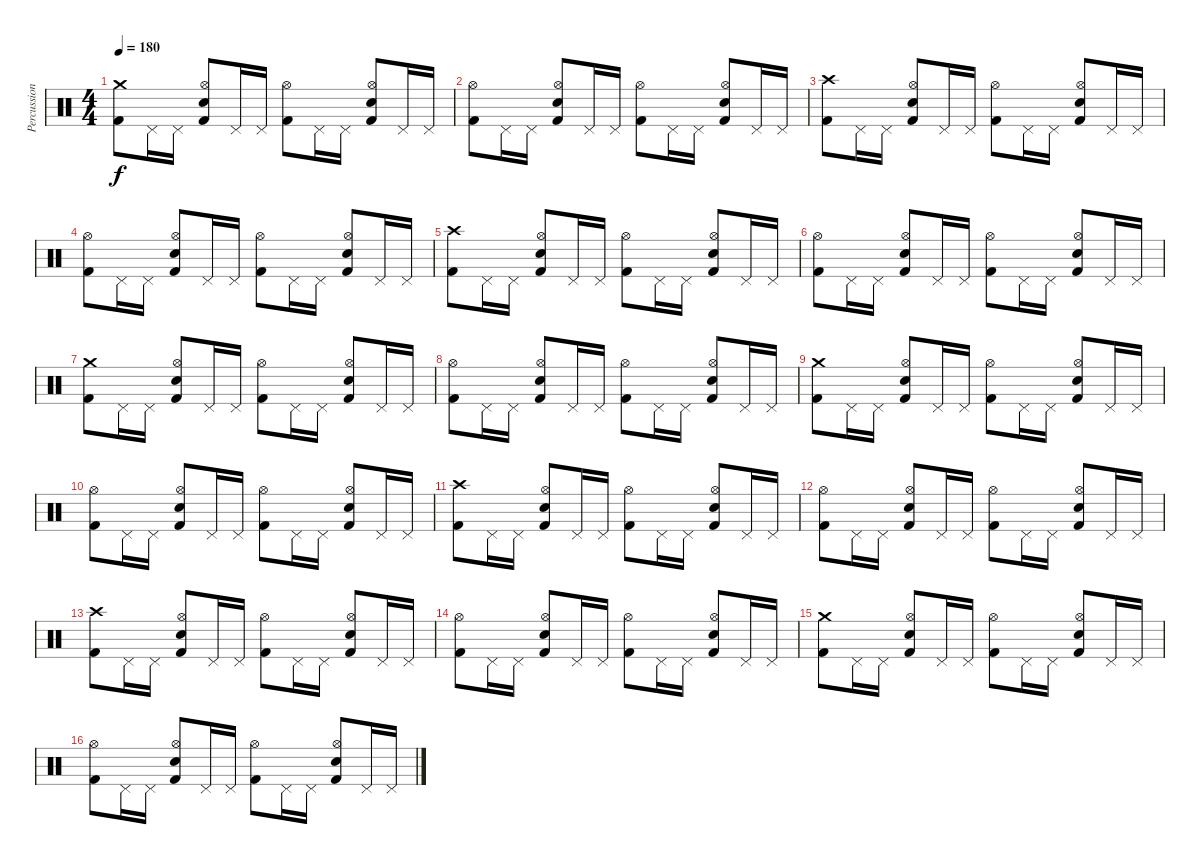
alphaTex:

\track ("Percussion" "Percussion") {instrument percussion}
\staff {score}
\articulation defaults
\ts (4 4)
\tempo 180
\clef neutral
\ks c
("Crash medium (hit)" "Kick (hit) 2").8{dy f} "Pedal Hi-Hat (hit)".16 "Pedal Hi-Hat (hit)".16 ("Hi-Hat (open)" "Electric Snare (hit)" "Kick (hit) 2").8 "Pedal Hi-Hat (hit)".16 "Pedal Hi-Hat (hit)".16 ("Hi-Hat (open)" "Kick (hit) 2").8 "Pedal Hi-Hat (hit)".16 "Pedal Hi-Hat (hit)".16 ("Hi-Hat (open)" "Electric Snare (hit)" "Kick (hit) 2").8 "Pedal Hi-Hat (hit)".16 "Pedal Hi-Hat (hit)".16 |
("Hi-Hat (open)" "Kick (hit) 2").8 "Pedal Hi-Hat (hit)".16 "Pedal Hi-Hat (hit)".16 ("Hi-Hat (open)" "Electric Snare (hit)" "Kick (hit) 2").8 "Pedal Hi-Hat (hit)".16 "Pedal Hi-Hat (hit)".16 ("Hi-Hat (open)" "Kick (hit) 2").8 "Pedal Hi-Hat (hit)".16 "Pedal Hi-Hat (hit)".16 ("Hi-Hat (open)" "Electric Snare (hit)" "Kick (hit) 2").8 "Pedal Hi-Hat (hit)".16 "Pedal Hi-Hat (hit)".16 |
("Crash high (hit)" "Kick (hit) 2").8 "Pedal Hi-Hat (hit)".16 "Pedal Hi-Hat (hit)".16 ("Hi-Hat (open)" "Electric Snare (hit)" "Kick (hit) 2").8 "Pedal Hi-Hat (hit)".16 "Pedal Hi-Hat (hit)".16 ("Hi-Hat (open)" "Kick (hit) 2").8 "Pedal Hi-Hat (hit)".16 "Pedal Hi-Hat (hit)".16 ("Hi-Hat (open)" "Electric Snare (hit)" "Kick (hit) 2").8 "Pedal Hi-Hat (hit)".16 "Pedal Hi-Hat (hit)".16 |
("Hi-Hat (open)" "Kick (hit) 2").8 "Pedal Hi-Hat (hit)".16 "Pedal Hi-Hat (hit)".16 ("Hi-Hat (open)" "Electric Snare (hit)" "Kick (hit) 2").8 "Pedal Hi-Hat (hit)".16 "Pedal Hi-Hat (hit)".16 ("Hi-Hat (open)" "Kick (hit) 2").8 "Pedal Hi-Hat (hit)".16 "Pedal Hi-Hat (hit)".16 ("Hi-Hat (open)" "Electric Snare (hit)" "Kick (hit) 2").8 "Pedal Hi-Hat (hit)".16 "Pedal Hi-Hat (hit)".16 |
("Crash high (hit)" "Kick (hit) 2").8 "Pedal Hi-Hat (hit)".16 "Pedal Hi-Hat (hit)".16 ("Hi-Hat (open)" "Electric Snare (hit)" "Kick (hit) 2").8 "Pedal Hi-Hat (hit)".16 "Pedal Hi-Hat (hit)".16 ("Hi-Hat (open)" "Kick (hit) 2").8 "Pedal Hi-Hat (hit)".16 "Pedal Hi-Hat (hit)".16 ("Hi-Hat (open)" "Electric Snare (hit)" "Kick (hit) 2").8 "Pedal Hi-Hat (hit)".16 "Pedal Hi-Hat (hit)".16 |
("Hi-Hat (open)" "Kick (hit) 2").8 "Pedal Hi-Hat (hit)".16 "Pedal Hi-Hat (hit)".16 ("Hi-Hat (open)" "Electric Snare (hit)" "Kick (hit) 2").8 "Pedal Hi-Hat (hit)".16 "Pedal Hi-Hat (hit)".16 ("Hi-Hat (open)" "Kick (hit) 2").8 "Pedal Hi-Hat (hit)".16 "Pedal Hi-Hat (hit)".16 ("Hi-Hat (open)" "Electric Snare (hit)" "Kick (hit) 2").8 "Pedal Hi-Hat (hit)".16 "Pedal Hi-Hat (hit)".16 |
("Crash medium (hit)" "Kick (hit) 2").8 "Pedal Hi-Hat (hit)".16 "Pedal Hi-Hat (hit)".16 ("Hi-Hat (open)" "Electric Snare (hit)" "Kick (hit) 2").8 "Pedal Hi-Hat (hit)".16 "Pedal Hi-Hat (hit)".16 ("Hi-Hat (open)" "Kick (hit) 2").8 "Pedal Hi-Hat (hit)".16 "Pedal Hi-Hat (hit)".16 ("Hi-Hat (open)" "Electric Snare (hit)" "Kick (hit) 2").8 "Pedal Hi-Hat (hit)".16 "Pedal Hi-Hat (hit)".16 |
("Hi-Hat (open)" "Kick (hit) 2").8 "Pedal Hi-Hat (hit)".16 "Pedal Hi-Hat (hit)".16 ("Hi-Hat (open)" "Electric Snare (hit)" "Kick (hit) 2").8 "Pedal Hi-Hat (hit)".16 "Pedal Hi-Hat (hit)".16 ("Hi-Hat (open)" "Kick (hit) 2").8 "Pedal Hi-Hat (hit)".16 "Pedal Hi-Hat (hit)".16 ("Hi-Hat (open)" "Electric Snare (hit)" "Kick (hit) 2").8 "Pedal Hi-Hat (hit)".16 "Pedal Hi-Hat (hit)".16 |
("Crash medium (hit)" "Kick (hit) 2").8 "Pedal Hi-Hat (hit)".16 "Pedal Hi-Hat (hit)".16 ("Hi-Hat (open)" "Electric Snare (hit)" "Kick (hit) 2").8 "Pedal Hi-Hat (hit)".16 "Pedal Hi-Hat (hit)".16 ("Hi-Hat (open)" "Kick (hit) 2").8 "Pedal Hi-Hat (hit)".16 "Pedal Hi-Hat (hit)".16 ("Hi-Hat (open)" "Electric Snare (hit)" "Kick (hit) 2").8 "Pedal Hi-Hat (hit)".16 "Pedal Hi-Hat (hit)".16 |
("Hi-Hat (open)" "Kick (hit) 2").8 "Pedal Hi-Hat (hit)".16 "Pedal Hi-Hat (hit)".16 ("Hi-Hat (open)" "Electric Snare (hit)" "Kick (hit) 2").8 "Pedal Hi-Hat (hit)".16 "Pedal Hi-Hat (hit)".16 ("Hi-Hat (open)" "Kick (hit) 2").8 "Pedal Hi-Hat (hit)".16 "Pedal Hi-Hat (hit)".16 ("Hi-Hat (open)" "Electric Snare (hit)" "Kick (hit) 2").8 "Pedal Hi-Hat (hit)".16 "Pedal Hi-Hat (hit)".16 |
("Crash high (hit)" "Kick (hit) 2").8 "Pedal Hi-Hat (hit)".16 "Pedal Hi-Hat (hit)".16 ("Hi-Hat (open)" "Electric Snare (hit)" "Kick (hit) 2").8 "Pedal Hi-Hat (hit)".16 "Pedal Hi-Hat (hit)".16 ("Hi-Hat (open)" "Kick (hit) 2").8 "Pedal Hi-Hat (hit)".16 "Pedal Hi-Hat (hit)".16 ("Hi-Hat (open)" "Electric Snare (hit)" "Kick (hit) 2").8 "Pedal Hi-Hat (hit)".16 "Pedal Hi-Hat (hit)".16 |
("Hi-Hat (open)" "Kick (hit) 2").8 "Pedal Hi-Hat (hit)".16 "Pedal Hi-Hat (hit)".16 ("Hi-Hat (open)" "Electric Snare (hit)" "Kick (hit) 2").8 "Pedal Hi-Hat (hit)".16 "Pedal Hi-Hat (hit)".16 ("Hi-Hat (open)" "Kick (hit) 2").8 "Pedal Hi-Hat (hit)".16 "Pedal Hi-Hat (hit)".16 ("Hi-Hat (open)" "Electric Snare (hit)" "Kick (hit) 2").8 "Pedal Hi-Hat (hit)".16 "Pedal Hi-Hat (hit)".16 |
("Crash high (hit)" "Kick (hit) 2").8 "Pedal Hi-Hat (hit)".16 "Pedal Hi-Hat (hit)".16 ("Hi-Hat (open)" "Electric Snare (hit)" "Kick (hit) 2").8 "Pedal Hi-Hat (hit)".16 "Pedal Hi-Hat (hit)".16 ("Hi-Hat (open)" "Kick (hit) 2").8 "Pedal Hi-Hat (hit)".16 "Pedal Hi-Hat (hit)".16 ("Hi-Hat (open)" "Electric Snare (hit)" "Kick (hit) 2").8 "Pedal Hi-Hat (hit)".16 "Pedal Hi-Hat (hit)".16 |
("Hi-Hat (open)" "Kick (hit) 2").8 "Pedal Hi-Hat (hit)".16 "Pedal Hi-Hat (hit)".16 ("Hi-Hat (open)" "Electric Snare (hit)" "Kick (hit) 2").8 "Pedal Hi-Hat (hit)".16 "Pedal Hi-Hat (hit)".16 ("Hi-Hat (open)" "Kick (hit) 2").8 "Pedal Hi-Hat (hit)".16 "Pedal Hi-Hat (hit)".16 ("Hi-Hat (open)" "Electric Snare (hit)" "Kick (hit) 2").8 "Pedal Hi-Hat (hit)".16 "Pedal Hi-Hat (hit)".16 |
("Crash medium (hit)" "Kick (hit) 2").8 "Pedal Hi-Hat (hit)".16 "Pedal Hi-Hat (hit)".16 ("Hi-Hat (open)" "Electric Snare (hit)" "Kick (hit) 2").8 "Pedal Hi-Hat (hit)".16 "Pedal Hi-Hat (hit)".16 ("Hi-Hat (open)" "Kick (hit) 2").8 "Pedal Hi-Hat (hit)".16 "Pedal Hi-Hat (hit)".16 ("Hi-Hat (open)" "Electric Snare (hit)" "Kick (hit) 2").8 "Pedal Hi-Hat (hit)".16 "Pedal Hi-Hat (hit)".16 |
("Hi-Hat (open)" "Kick (hit) 2").8 "Pedal Hi-Hat (hit)".16 "Pedal Hi-Hat (hit)".16 ("Hi-Hat (open)" "Electric Snare (hit)" "Kick (hit) 2").8 "Pedal Hi-Hat (hit)".16 "Pedal Hi-Hat (hit)".16 ("Hi-Hat (open)" "Kick (hit) 2").8 "Pedal Hi-Hat (hit)".16 "Pedal Hi-Hat (hit)".16 ("Hi-Hat (open)" "Electric Snare (hit)" "Kick (hit) 2").8 "Pedal Hi-Hat (hit)".16 "Pedal Hi-Hat (hit)".16
